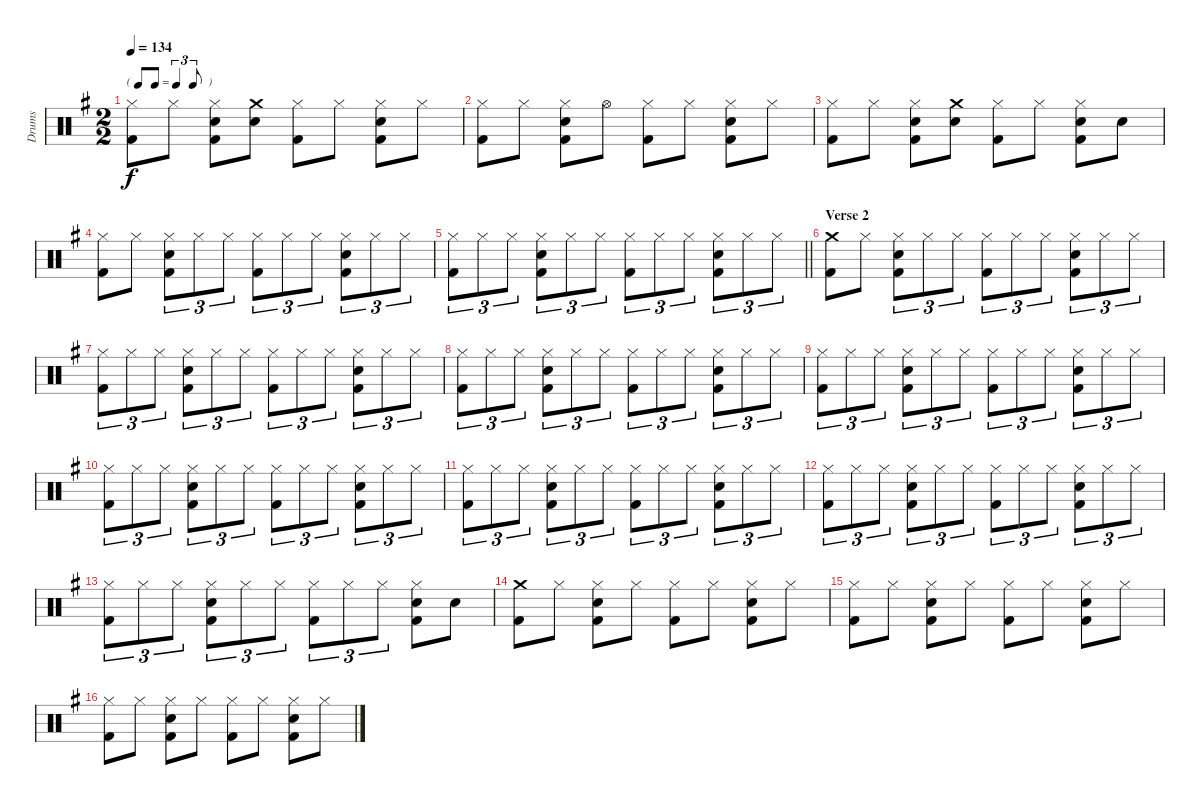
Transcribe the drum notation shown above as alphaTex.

\track ("Drums" "Drums") {instrument percussion}
\staff {score}
\articulation defaults
\ts (2 2)
\tf triplet8th
\tempo 134
\clef neutral
\ks g
("Hi-Hat (closed)" "Kick (hit) 2").8{dy f} "Hi-Hat (closed)".8 ("Hi-Hat (closed)" "Snare (hit) 2" "Kick (hit) 2").8 ("Crash medium (hit)" "Snare (hit) 2").8 ("Hi-Hat (closed)" "Kick (hit) 2").8 "Hi-Hat (closed)".8 ("Hi-Hat (closed)" "Snare (hit) 2" "Kick (hit) 2").8 "Hi-Hat (closed)".8 |
("Hi-Hat (closed)" "Kick (hit) 2").8 "Hi-Hat (closed)".8 ("Hi-Hat (closed)" "Snare (hit) 2" "Kick (hit) 2").8 "Hi-Hat (open)".8 ("Hi-Hat (closed)" "Kick (hit) 2").8 "Hi-Hat (closed)".8 ("Hi-Hat (closed)" "Snare (hit) 2" "Kick (hit) 2").8 "Hi-Hat (closed)".8 |
("Hi-Hat (closed)" "Kick (hit) 2").8 "Hi-Hat (closed)".8 ("Hi-Hat (closed)" "Snare (hit) 2" "Kick (hit) 2").8 ("Crash medium (hit)" "Snare (hit) 2").8 ("Hi-Hat (closed)" "Kick (hit) 2").8 "Hi-Hat (closed)".8 ("Hi-Hat (closed)" "Snare (hit) 2" "Kick (hit) 2").8 "Snare (hit) 2".8 |
("Hi-Hat (closed)" "Kick (hit) 2").8 "Hi-Hat (closed)".8{beam split} ("Hi-Hat (closed)" "Snare (hit) 2" "Kick (hit) 2").8{tu (3 2)} "Hi-Hat (closed)".8{tu (3 2)} "Hi-Hat (closed)".8{tu (3 2)} ("Hi-Hat (closed)" "Kick (hit) 2").8{tu (3 2)} "Hi-Hat (closed)".8{tu (3 2)} "Hi-Hat (closed)".8{tu (3 2) beam split} ("Hi-Hat (closed)" "Snare (hit) 2" "Kick (hit) 2").8{tu (3 2)} "Hi-Hat (closed)".8{tu (3 2)} "Hi-Hat (closed)".8{tu (3 2)} |
\barLineRight lightlight
("Hi-Hat (closed)" "Kick (hit) 2").8{tu (3 2)} "Hi-Hat (closed)".8{tu (3 2)} "Hi-Hat (closed)".8{tu (3 2) beam split} ("Hi-Hat (closed)" "Snare (hit) 2" "Kick (hit) 2").8{tu (3 2)} "Hi-Hat (closed)".8{tu (3 2)} "Hi-Hat (closed)".8{tu (3 2)} ("Hi-Hat (closed)" "Kick (hit) 2").8{tu (3 2)} "Hi-Hat (closed)".8{tu (3 2)} "Hi-Hat (closed)".8{tu (3 2) beam split} ("Hi-Hat (closed)" "Snare (hit) 2" "Kick (hit) 2").8{tu (3 2)} "Hi-Hat (closed)".8{tu (3 2)} "Hi-Hat (closed)".8{tu (3 2)} |
\section ("" "Verse 2")
("Crash medium (hit)" "Kick (hit) 2").8 "Hi-Hat (closed)".8{beam split} ("Hi-Hat (closed)" "Snare (hit) 2" "Kick (hit) 2").8{tu (3 2)} "Hi-Hat (closed)".8{tu (3 2)} "Hi-Hat (closed)".8{tu (3 2) beam split} ("Hi-Hat (closed)" "Kick (hit) 2").8{tu (3 2)} "Hi-Hat (closed)".8{tu (3 2)} "Hi-Hat (closed)".8{tu (3 2) beam split} ("Hi-Hat (closed)" "Snare (hit) 2" "Kick (hit) 2").8{tu (3 2)} "Hi-Hat (closed)".8{tu (3 2)} "Hi-Hat (closed)".8{tu (3 2)} |
("Hi-Hat (closed)" "Kick (hit) 2").8{tu (3 2)} "Hi-Hat (closed)".8{tu (3 2)} "Hi-Hat (closed)".8{tu (3 2) beam split} ("Hi-Hat (closed)" "Snare (hit) 2" "Kick (hit) 2").8{tu (3 2)} "Hi-Hat (closed)".8{tu (3 2)} "Hi-Hat (closed)".8{tu (3 2) beam split} ("Hi-Hat (closed)" "Kick (hit) 2").8{tu (3 2)} "Hi-Hat (closed)".8{tu (3 2)} "Hi-Hat (closed)".8{tu (3 2) beam split} ("Hi-Hat (closed)" "Snare (hit) 2" "Kick (hit) 2").8{tu (3 2)} "Hi-Hat (closed)".8{tu (3 2)} "Hi-Hat (closed)".8{tu (3 2)} |
("Hi-Hat (closed)" "Kick (hit) 2").8{tu (3 2)} "Hi-Hat (closed)".8{tu (3 2)} "Hi-Hat (closed)".8{tu (3 2) beam split} ("Hi-Hat (closed)" "Snare (hit) 2" "Kick (hit) 2").8{tu (3 2)} "Hi-Hat (closed)".8{tu (3 2)} "Hi-Hat (closed)".8{tu (3 2) beam split} ("Hi-Hat (closed)" "Kick (hit) 2").8{tu (3 2)} "Hi-Hat (closed)".8{tu (3 2)} "Hi-Hat (closed)".8{tu (3 2) beam split} ("Hi-Hat (closed)" "Snare (hit) 2" "Kick (hit) 2").8{tu (3 2)} "Hi-Hat (closed)".8{tu (3 2)} "Hi-Hat (closed)".8{tu (3 2)} |
("Hi-Hat (closed)" "Kick (hit) 2").8{tu (3 2)} "Hi-Hat (closed)".8{tu (3 2)} "Hi-Hat (closed)".8{tu (3 2) beam split} ("Hi-Hat (closed)" "Snare (hit) 2" "Kick (hit) 2").8{tu (3 2)} "Hi-Hat (closed)".8{tu (3 2)} "Hi-Hat (closed)".8{tu (3 2) beam split} ("Hi-Hat (closed)" "Kick (hit) 2").8{tu (3 2)} "Hi-Hat (closed)".8{tu (3 2)} "Hi-Hat (closed)".8{tu (3 2) beam split} ("Hi-Hat (closed)" "Snare (hit) 2" "Kick (hit) 2").8{tu (3 2)} "Hi-Hat (closed)".8{tu (3 2)} "Hi-Hat (closed)".8{tu (3 2)} |
("Hi-Hat (closed)" "Kick (hit) 2").8{tu (3 2)} "Hi-Hat (closed)".8{tu (3 2)} "Hi-Hat (closed)".8{tu (3 2) beam split} ("Hi-Hat (closed)" "Snare (hit) 2" "Kick (hit) 2").8{tu (3 2)} "Hi-Hat (closed)".8{tu (3 2)} "Hi-Hat (closed)".8{tu (3 2) beam split} ("Hi-Hat (closed)" "Kick (hit) 2").8{tu (3 2)} "Hi-Hat (closed)".8{tu (3 2)} "Hi-Hat (closed)".8{tu (3 2) beam split} ("Hi-Hat (closed)" "Snare (hit) 2" "Kick (hit) 2").8{tu (3 2)} "Hi-Hat (closed)".8{tu (3 2)} "Hi-Hat (closed)".8{tu (3 2)} |
("Hi-Hat (closed)" "Kick (hit) 2").8{tu (3 2)} "Hi-Hat (closed)".8{tu (3 2)} "Hi-Hat (closed)".8{tu (3 2) beam split} ("Hi-Hat (closed)" "Snare (hit) 2" "Kick (hit) 2").8{tu (3 2)} "Hi-Hat (closed)".8{tu (3 2)} "Hi-Hat (closed)".8{tu (3 2) beam split} ("Hi-Hat (closed)" "Kick (hit) 2").8{tu (3 2)} "Hi-Hat (closed)".8{tu (3 2)} "Hi-Hat (closed)".8{tu (3 2) beam split} ("Hi-Hat (closed)" "Snare (hit) 2" "Kick (hit) 2").8{tu (3 2)} "Hi-Hat (closed)".8{tu (3 2)} "Hi-Hat (closed)".8{tu (3 2)} |
("Hi-Hat (closed)" "Kick (hit) 2").8{tu (3 2)} "Hi-Hat (closed)".8{tu (3 2)} "Hi-Hat (closed)".8{tu (3 2) beam split} ("Hi-Hat (closed)" "Snare (hit) 2" "Kick (hit) 2").8{tu (3 2)} "Hi-Hat (closed)".8{tu (3 2)} "Hi-Hat (closed)".8{tu (3 2) beam split} ("Hi-Hat (closed)" "Kick (hit) 2").8{tu (3 2)} "Hi-Hat (closed)".8{tu (3 2)} "Hi-Hat (closed)".8{tu (3 2) beam split} ("Hi-Hat (closed)" "Snare (hit) 2" "Kick (hit) 2").8{tu (3 2)} "Hi-Hat (closed)".8{tu (3 2)} "Hi-Hat (closed)".8{tu (3 2)} |
("Hi-Hat (closed)" "Kick (hit) 2").8{tu (3 2)} "Hi-Hat (closed)".8{tu (3 2)} "Hi-Hat (closed)".8{tu (3 2) beam split} ("Hi-Hat (closed)" "Snare (hit) 2" "Kick (hit) 2").8{tu (3 2)} "Hi-Hat (closed)".8{tu (3 2)} "Hi-Hat (closed)".8{tu (3 2) beam split} ("Hi-Hat (closed)" "Kick (hit) 2").8{tu (3 2)} "Hi-Hat (closed)".8{tu (3 2)} "Hi-Hat (closed)".8{tu (3 2) beam split} ("Hi-Hat (closed)" "Snare (hit) 2" "Kick (hit) 2").8 "Snare (hit) 2".8 |
("Crash medium (hit)" "Kick (hit) 2").8 "Hi-Hat (closed)".8 ("Hi-Hat (closed)" "Snare (hit) 2" "Kick (hit) 2").8 "Hi-Hat (closed)".8 ("Hi-Hat (closed)" "Kick (hit) 2").8 "Hi-Hat (closed)".8 ("Hi-Hat (closed)" "Snare (hit) 2" "Kick (hit) 2").8 "Hi-Hat (closed)".8 |
("Hi-Hat (closed)" "Kick (hit) 2").8 "Hi-Hat (closed)".8 ("Hi-Hat (closed)" "Snare (hit) 2" "Kick (hit) 2").8 "Hi-Hat (closed)".8 ("Hi-Hat (closed)" "Kick (hit) 2").8 "Hi-Hat (closed)".8 ("Hi-Hat (closed)" "Snare (hit) 2" "Kick (hit) 2").8 "Hi-Hat (closed)".8 |
("Hi-Hat (closed)" "Kick (hit) 2").8 "Hi-Hat (closed)".8 ("Hi-Hat (closed)" "Snare (hit) 2" "Kick (hit) 2").8 "Hi-Hat (closed)".8 ("Hi-Hat (closed)" "Kick (hit) 2").8 "Hi-Hat (closed)".8 ("Hi-Hat (closed)" "Snare (hit) 2" "Kick (hit) 2").8 "Hi-Hat (closed)".8
